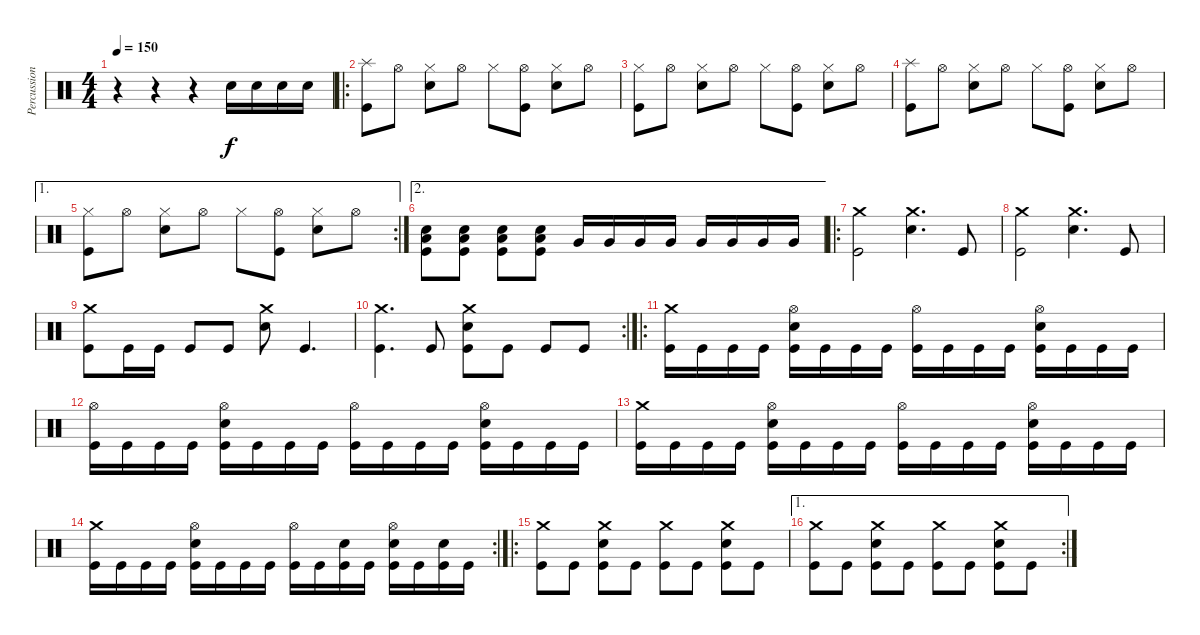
\track ("Percussion" "Percussion") {instrument percussion}
\staff {score}
\articulation defaults
\ts (4 4)
\tempo 150
\clef neutral
\ks c
r.4{dy f} r.4 r.4 "Electric Snare (hit)".16 "Electric Snare (hit)".16 "Electric Snare (hit)".16 "Electric Snare (hit)".16 |
\ro
("Splash (hit)" "Kick (hit)").8 "Hi-Hat (open)".8 ("Hi-Hat (closed)" "Electric Snare (hit)").8 "Hi-Hat (open)".8 "Hi-Hat (closed)".8 ("Hi-Hat (open)" "Kick (hit)").8 ("Hi-Hat (closed)" "Electric Snare (hit)").8 "Hi-Hat (open)".8 |
("Hi-Hat (closed)" "Kick (hit)").8 "Hi-Hat (open)".8 ("Hi-Hat (closed)" "Electric Snare (hit)").8 "Hi-Hat (open)".8 "Hi-Hat (closed)".8 ("Hi-Hat (open)" "Kick (hit)").8 ("Hi-Hat (closed)" "Electric Snare (hit)").8 "Hi-Hat (open)".8 |
("Splash (hit)" "Kick (hit)").8 "Hi-Hat (open)".8 ("Hi-Hat (closed)" "Electric Snare (hit)").8 "Hi-Hat (open)".8 "Hi-Hat (closed)".8 ("Hi-Hat (open)" "Kick (hit)").8 ("Hi-Hat (closed)" "Electric Snare (hit)").8 "Hi-Hat (open)".8 |
\ae 1
\rc 2
("Hi-Hat (closed)" "Kick (hit)").8 "Hi-Hat (open)".8 ("Hi-Hat (closed)" "Electric Snare (hit)").8 "Hi-Hat (open)".8 "Hi-Hat (closed)".8 ("Hi-Hat (open)" "Kick (hit)").8 ("Hi-Hat (closed)" "Electric Snare (hit)").8 "Hi-Hat (open)".8 |
\ae 2
("Electric Snare (hit)" "Low Floor Tom (hit)" "Kick (hit)").8 ("Electric Snare (hit)" "Low Floor Tom (hit)" "Kick (hit)").8 ("Electric Snare (hit)" "Low Floor Tom (hit)" "Kick (hit)").8 ("Electric Snare (hit)" "Low Floor Tom (hit)" "Kick (hit)").8 "Very Low Tom (hit)".16 "Very Low Tom (hit)".16 "Very Low Tom (hit)".16 "Very Low Tom (hit)".16 "Very Low Tom (hit)".16 "Very Low Tom (hit)".16 "Very Low Tom (hit)".16 "Very Low Tom (hit)".16 |
\ro
("Crash medium (hit)" "Kick (hit)").2 ("Crash medium (hit)" "Electric Snare (hit)").4{d} "Kick (hit)".8 |
("Crash medium (hit)" "Kick (hit)").2 ("Crash medium (hit)" "Electric Snare (hit)").4{d} "Kick (hit)".8 |
("Crash medium (hit)" "Kick (hit)").8 "Kick (hit)".16 "Kick (hit)".16 "Kick (hit)".8 "Kick (hit)".8 ("Crash medium (hit)" "Electric Snare (hit)").8 "Kick (hit)".4{d} |
\rc 2
("Crash medium (hit)" "Kick (hit)").4{d} "Kick (hit)".8 ("Crash medium (hit)" "Electric Snare (hit)" "Kick (hit)").8 "Kick (hit)".8 "Kick (hit)".8 "Kick (hit)".8 |
\ro
("Crash medium (hit)" "Kick (hit)").16 "Kick (hit)".16 "Kick (hit)".16 "Kick (hit)".16 ("Hi-Hat (open)" "Electric Snare (hit)" "Kick (hit)").16 "Kick (hit)".16 "Kick (hit)".16 "Kick (hit)".16 ("Hi-Hat (open)" "Kick (hit)").16 "Kick (hit)".16 "Kick (hit)".16 "Kick (hit)".16 ("Hi-Hat (open)" "Electric Snare (hit)" "Kick (hit)").16 "Kick (hit)".16 "Kick (hit)".16 "Kick (hit)".16 |
("Hi-Hat (open)" "Kick (hit)").16 "Kick (hit)".16 "Kick (hit)".16 "Kick (hit)".16 ("Hi-Hat (open)" "Electric Snare (hit)" "Kick (hit)").16 "Kick (hit)".16 "Kick (hit)".16 "Kick (hit)".16 ("Hi-Hat (open)" "Kick (hit)").16 "Kick (hit)".16 "Kick (hit)".16 "Kick (hit)".16 ("Hi-Hat (open)" "Electric Snare (hit)" "Kick (hit)").16 "Kick (hit)".16 "Kick (hit)".16 "Kick (hit)".16 |
("Crash medium (hit)" "Kick (hit)").16 "Kick (hit)".16 "Kick (hit)".16 "Kick (hit)".16 ("Hi-Hat (open)" "Electric Snare (hit)" "Kick (hit)").16 "Kick (hit)".16 "Kick (hit)".16 "Kick (hit)".16 ("Hi-Hat (open)" "Kick (hit)").16 "Kick (hit)".16 "Kick (hit)".16 "Kick (hit)".16 ("Hi-Hat (open)" "Electric Snare (hit)" "Kick (hit)").16 "Kick (hit)".16 "Kick (hit)".16 "Kick (hit)".16 |
\rc 2
("Crash medium (hit)" "Kick (hit)").16 "Kick (hit)".16 "Kick (hit)".16 "Kick (hit)".16 ("Hi-Hat (open)" "Electric Snare (hit)" "Kick (hit)").16 "Kick (hit)".16 "Kick (hit)".16 "Kick (hit)".16 ("Hi-Hat (open)" "Kick (hit)").16 "Kick (hit)".16 ("Electric Snare (hit)" "Kick (hit)").16 "Kick (hit)".16 ("Hi-Hat (open)" "Electric Snare (hit)" "Kick (hit)").16 "Kick (hit)".16 ("Electric Snare (hit)" "Kick (hit)").16 "Kick (hit)".16 |
\ro
("Crash medium (hit)" "Kick (hit)").8 "Kick (hit)".8 ("Crash medium (hit)" "Electric Snare (hit)" "Kick (hit)").8 "Kick (hit)".8 ("Crash medium (hit)" "Kick (hit)").8 "Kick (hit)".8 ("Crash medium (hit)" "Electric Snare (hit)" "Kick (hit)").8 "Kick (hit)".8 |
\ae 1
\rc 2
("Crash medium (hit)" "Kick (hit)").8 "Kick (hit)".8 ("Crash medium (hit)" "Electric Snare (hit)" "Kick (hit)").8 "Kick (hit)".8 ("Crash medium (hit)" "Kick (hit)").8 "Kick (hit)".8 ("Crash medium (hit)" "Electric Snare (hit)" "Kick (hit)").8 "Kick (hit)".8
